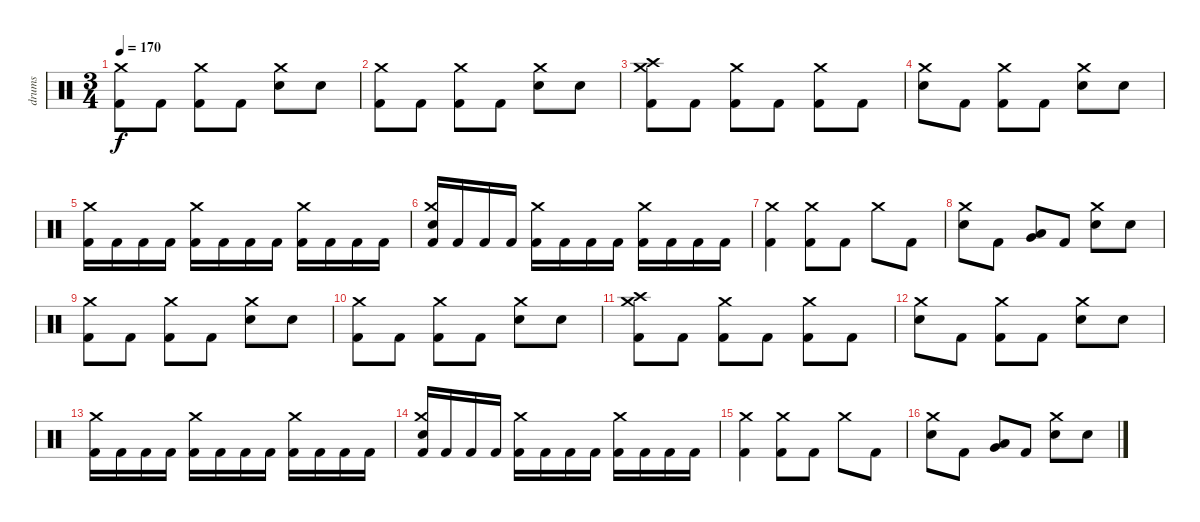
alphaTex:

\track ("drums" "drums") {instrument percussion}
\staff {score}
\articulation defaults
\ts (3 4)
\tempo 170
\clef neutral
\ks c
("Kick (hit) 2" "Crash medium (hit)").8{dy f} "Kick (hit) 2".8 ("Kick (hit) 2" "Crash medium (hit)").8 "Kick (hit) 2".8 ("Snare (hit) 2" "Crash medium (hit)").8 "Snare (hit) 2".8 |
("Kick (hit) 2" "Crash medium (hit)").8 "Kick (hit) 2".8 ("Kick (hit) 2" "Crash medium (hit)").8 "Kick (hit) 2".8 ("Snare (hit) 2" "Crash medium (hit)").8 "Snare (hit) 2".8 |
("Kick (hit) 2" "Crash medium (hit)" "Crash high (hit)").8 "Kick (hit) 2".8 ("Kick (hit) 2" "Crash medium (hit)").8 "Kick (hit) 2".8 ("Kick (hit) 2" "Crash medium (hit)").8 "Kick (hit) 2".8 |
("Snare (hit) 2" "Crash medium (hit)").8 "Kick (hit) 2".8 ("Kick (hit) 2" "Crash medium (hit)").8 "Kick (hit) 2".8 ("Snare (hit) 2" "Crash medium (hit)").8 "Snare (hit) 2".8 |
("Kick (hit) 2" "Crash medium (hit)").16 "Kick (hit) 2".16 "Kick (hit) 2".16 "Kick (hit) 2".16 ("Kick (hit) 2" "Crash medium (hit)").16 "Kick (hit) 2".16 "Kick (hit) 2".16 "Kick (hit) 2".16 ("Kick (hit) 2" "Crash medium (hit)").16 "Kick (hit) 2".16 "Kick (hit) 2".16 "Kick (hit) 2".16 |
("Kick (hit) 2" "Snare (hit) 2" "Crash medium (hit)").16 "Kick (hit) 2".16 "Kick (hit) 2".16 "Kick (hit) 2".16 ("Kick (hit) 2" "Crash medium (hit)").16 "Kick (hit) 2".16 "Kick (hit) 2".16 "Kick (hit) 2".16 ("Kick (hit) 2" "Crash medium (hit)").16 "Kick (hit) 2".16 "Kick (hit) 2".16 "Kick (hit) 2".16 |
("Kick (hit) 2" "Crash medium (hit)").4 ("Kick (hit) 2" "Crash medium (hit)").8 "Kick (hit) 2".8 "Crash medium (hit)".8 "Kick (hit) 2".8 |
("Snare (hit) 2" "Crash medium (hit)").8 "Kick (hit) 2".8 ("Very Low Tom (hit)" "Low Tom (hit)").8 "Kick (hit) 2".8 ("Snare (hit) 2" "Crash medium (hit)").8 "Snare (hit) 2".8 |
("Kick (hit) 2" "Crash medium (hit)").8 "Kick (hit) 2".8 ("Kick (hit) 2" "Crash medium (hit)").8 "Kick (hit) 2".8 ("Snare (hit) 2" "Crash medium (hit)").8 "Snare (hit) 2".8 |
("Kick (hit) 2" "Crash medium (hit)").8 "Kick (hit) 2".8 ("Kick (hit) 2" "Crash medium (hit)").8 "Kick (hit) 2".8 ("Snare (hit) 2" "Crash medium (hit)").8 "Snare (hit) 2".8 |
("Kick (hit) 2" "Crash medium (hit)" "Crash high (hit)").8 "Kick (hit) 2".8 ("Kick (hit) 2" "Crash medium (hit)").8 "Kick (hit) 2".8 ("Kick (hit) 2" "Crash medium (hit)").8 "Kick (hit) 2".8 |
("Snare (hit) 2" "Crash medium (hit)").8 "Kick (hit) 2".8 ("Kick (hit) 2" "Crash medium (hit)").8 "Kick (hit) 2".8 ("Snare (hit) 2" "Crash medium (hit)").8 "Snare (hit) 2".8 |
("Kick (hit) 2" "Crash medium (hit)").16 "Kick (hit) 2".16 "Kick (hit) 2".16 "Kick (hit) 2".16 ("Kick (hit) 2" "Crash medium (hit)").16 "Kick (hit) 2".16 "Kick (hit) 2".16 "Kick (hit) 2".16 ("Kick (hit) 2" "Crash medium (hit)").16 "Kick (hit) 2".16 "Kick (hit) 2".16 "Kick (hit) 2".16 |
("Kick (hit) 2" "Snare (hit) 2" "Crash medium (hit)").16 "Kick (hit) 2".16 "Kick (hit) 2".16 "Kick (hit) 2".16 ("Kick (hit) 2" "Crash medium (hit)").16 "Kick (hit) 2".16 "Kick (hit) 2".16 "Kick (hit) 2".16 ("Kick (hit) 2" "Crash medium (hit)").16 "Kick (hit) 2".16 "Kick (hit) 2".16 "Kick (hit) 2".16 |
("Kick (hit) 2" "Crash medium (hit)").4 ("Kick (hit) 2" "Crash medium (hit)").8 "Kick (hit) 2".8 "Crash medium (hit)".8 "Kick (hit) 2".8 |
("Snare (hit) 2" "Crash medium (hit)").8 "Kick (hit) 2".8 ("Very Low Tom (hit)" "Low Tom (hit)").8 "Kick (hit) 2".8 ("Snare (hit) 2" "Crash medium (hit)").8 "Snare (hit) 2".8
